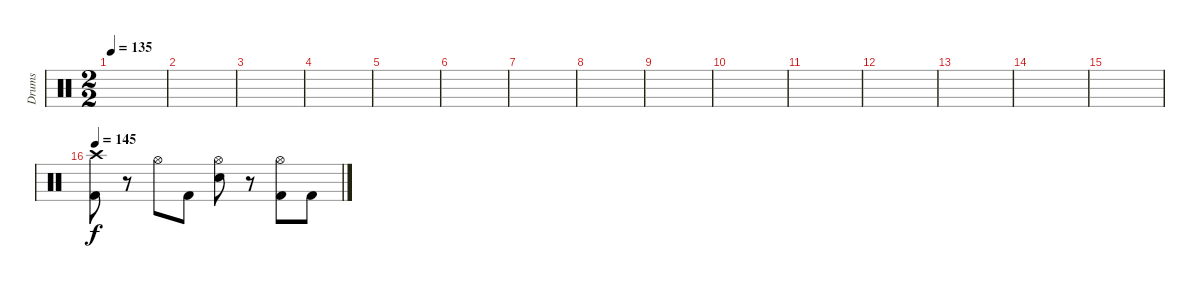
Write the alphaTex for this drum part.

\track ("Drums" "Drums") {instrument percussion}
\staff {score}
\articulation defaults
\ts (2 2)
\tempo 135
\clef neutral
\ks c
|
|
|
|
|
|
|
|
|
|
|
|
|
|
|
\tempo 145
("Crash high (hit)" "Kick (hit) 2").8 r.8 "Hi-Hat (open)".8 "Kick (hit) 2".8 ("Hi-Hat (open)" "Snare (hit) 2").8 r.8 ("Hi-Hat (open)" "Kick (hit) 2").8 "Kick (hit) 2".8
